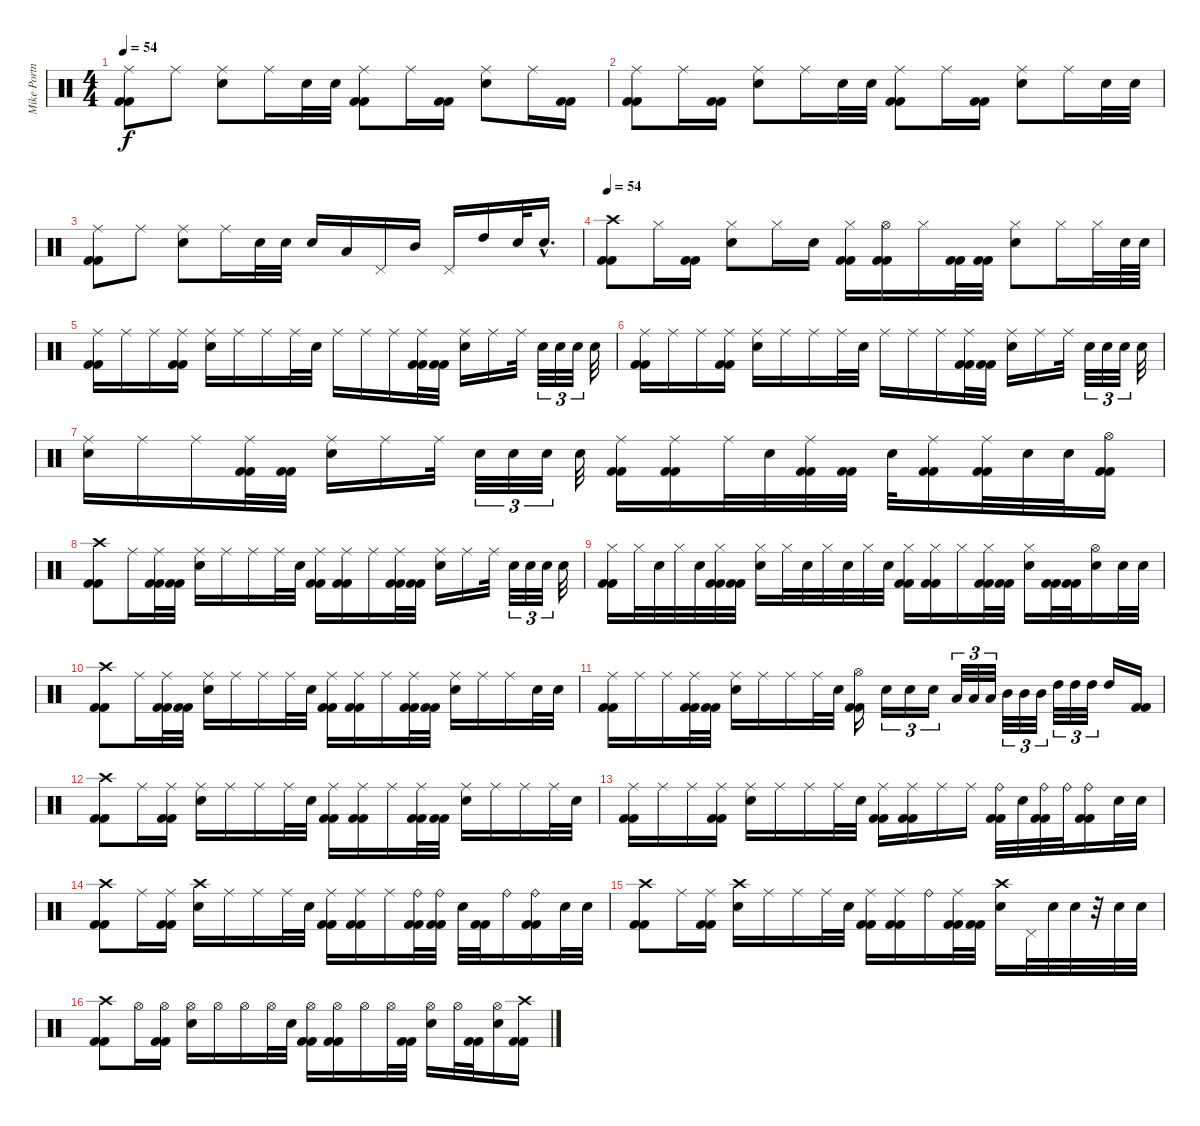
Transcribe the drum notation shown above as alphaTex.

\track ("Mike Portnoy - Drum" "Mike Portn") {instrument percussion}
\staff {score}
\articulation defaults
\ts (4 4)
\tempo 54
\clef neutral
\ks c
("Ride (middle)" "Kick (hit) 2" "Kick (hit) 2").8{dy f} "Ride (middle)".8 ("Ride (middle)" "Snare (hit) 2").8 "Ride (middle)".16 "Snare (hit) 2".32 "Snare (hit) 2".32 ("Ride (middle)" "Kick (hit) 2" "Kick (hit) 2").8 "Ride (middle)".16 ("Kick (hit) 2" "Kick (hit) 2").16 ("Ride (middle)" "Snare (hit) 2").8 "Ride (middle)".16 ("Kick (hit) 2" "Kick (hit) 2").16 |
("Ride (middle)" "Kick (hit) 2" "Kick (hit) 2").8 "Ride (middle)".16 ("Kick (hit) 2" "Kick (hit) 2").16 ("Ride (middle)" "Snare (hit) 2").8 "Ride (middle)".16 "Snare (hit) 2".32 "Snare (hit) 2".32 ("Ride (middle)" "Kick (hit) 2" "Kick (hit) 2").8 "Ride (middle)".16 ("Kick (hit) 2" "Kick (hit) 2").16 ("Ride (middle)" "Snare (hit) 2").8 "Ride (middle)".16 "Snare (hit) 2".32 "Snare (hit) 2".32 |
("Ride (middle)" "Kick (hit) 2" "Kick (hit) 2").8 "Ride (middle)".8 ("Ride (middle)" "Snare (hit) 2").8 "Ride (middle)".16 "Snare (hit) 2".32 "Snare (hit) 2".32 "Snare (hit) 2".16 "Low Tom (hit)".16 "Pedal Hi-Hat (hit)".16 "Mid Tom (hit)".16 "Pedal Hi-Hat (hit)".16 "High Tom (hit)".16 "Snare (hit) 2".32 "Snare (hit) 2"{hac}.16{d} |
\tempo 54
("Crash high (hit)" "Kick (hit) 2" "Kick (hit) 2").8 "Hi-Hat (closed)".16 ("Kick (hit) 2" "Kick (hit) 2").16 ("Hi-Hat (closed)" "Snare (hit) 2").8 "Hi-Hat (closed)".16 "Snare (hit) 2".16 ("Hi-Hat (closed)" "Kick (hit) 2" "Kick (hit) 2").16 ("Hi-Hat (open)" "Kick (hit) 2" "Kick (hit) 2").16 "Hi-Hat (closed)".16 ("Kick (hit) 2" "Kick (hit) 2").32 ("Kick (hit) 2" "Kick (hit) 2").32 ("Hi-Hat (closed)" "Snare (hit) 2").8 "Hi-Hat (closed)".16 "Hi-Hat (closed)".32 "Snare (hit) 2".64 "Snare (hit) 2".64 |
("Ride (middle)" "Kick (hit) 2" "Kick (hit) 2").16 "Ride (middle)".16 "Ride (middle)".16 ("Ride (middle)" "Kick (hit) 2" "Kick (hit) 2").16 ("Ride (middle)" "Snare (hit) 2").16 "Ride (middle)".16 "Ride (middle)".16 "Ride (middle)".32 "Snare (hit) 2".32 "Ride (middle)".16 "Ride (middle)".16 "Ride (middle)".16 ("Ride (middle)" "Kick (hit) 2" "Kick (hit) 2").32 ("Kick (hit) 2" "Kick (hit) 2").32 ("Ride (middle)" "Snare (hit) 2").16 "Ride (middle)".16 "Ride (middle)".32 "Snare (hit) 2".32{tu (3 2)} "Snare (hit) 2".32{tu (3 2)} "Snare (hit) 2".32{tu (3 2)} "Snare (hit) 2".32 |
("Ride (middle)" "Kick (hit) 2" "Kick (hit) 2").16 "Ride (middle)".16 "Ride (middle)".16 ("Ride (middle)" "Kick (hit) 2" "Kick (hit) 2").16 ("Ride (middle)" "Snare (hit) 2").16 "Ride (middle)".16 "Ride (middle)".16 "Ride (middle)".32 "Snare (hit) 2".32 "Ride (middle)".16 "Ride (middle)".16 "Ride (middle)".16 ("Ride (middle)" "Kick (hit) 2" "Kick (hit) 2").32 ("Kick (hit) 2" "Kick (hit) 2").32 ("Ride (middle)" "Snare (hit) 2").16 "Ride (middle)".16 "Ride (middle)".32 "Snare (hit) 2".32{tu (3 2)} "Snare (hit) 2".32{tu (3 2)} "Snare (hit) 2".32{tu (3 2)} "Snare (hit) 2".32 |
("Ride (middle)" "Snare (hit) 2").16 "Ride (middle)".16 "Ride (middle)".16 ("Ride (middle)" "Kick (hit) 2" "Kick (hit) 2").32 ("Kick (hit) 2" "Kick (hit) 2").32 ("Ride (middle)" "Snare (hit) 2").16 "Ride (middle)".16 "Ride (middle)".32 "Snare (hit) 2".32{tu (3 2)} "Snare (hit) 2".32{tu (3 2)} "Snare (hit) 2".32{tu (3 2)} "Snare (hit) 2".32 ("Ride (middle)" "Kick (hit) 2" "Kick (hit) 2").16 ("Ride (middle)" "Kick (hit) 2" "Kick (hit) 2").16 "Ride (middle)".32 "Snare (hit) 2".32 ("Ride (middle)" "Kick (hit) 2" "Kick (hit) 2").32 ("Kick (hit) 2" "Kick (hit) 2").32 "Snare (hit) 2".32 ("Ride (middle)" "Kick (hit) 2" "Kick (hit) 2").16 ("Ride (middle)" "Kick (hit) 2" "Kick (hit) 2").32 "Snare (hit) 2".32 "Snare (hit) 2".32 ("Hi-Hat (open)" "Kick (hit) 2" "Kick (hit) 2").16 |
("Crash high (hit)" "Kick (hit) 2" "Kick (hit) 2").8 "Ride (middle)".16 ("Ride (middle)" "Kick (hit) 2" "Kick (hit) 2").32 ("Kick (hit) 2" "Kick (hit) 2").32 ("Ride (middle)" "Snare (hit) 2").16 "Ride (middle)".16 "Ride (middle)".16 "Ride (middle)".32 "Snare (hit) 2".32 ("Ride (middle)" "Kick (hit) 2" "Kick (hit) 2").16 ("Ride (middle)" "Kick (hit) 2" "Kick (hit) 2").16 "Ride (middle)".16 ("Ride (middle)" "Kick (hit) 2" "Kick (hit) 2").32 ("Kick (hit) 2" "Kick (hit) 2").32 ("Ride (middle)" "Snare (hit) 2").16 "Ride (middle)".16 "Ride (middle)".32 "Snare (hit) 2".32{tu (3 2)} "Snare (hit) 2".32{tu (3 2)} "Snare (hit) 2".32{tu (3 2)} "Snare (hit) 2".32 |
("Hi-Hat (closed)" "Kick (hit) 2" "Kick (hit) 2").16 "Hi-Hat (closed)".32 "Snare (hit) 2".32 "Hi-Hat (closed)".32 "Snare (hit) 2".32 ("Hi-Hat (closed)" "Kick (hit) 2" "Kick (hit) 2").32 ("Kick (hit) 2" "Kick (hit) 2").32 ("Hi-Hat (closed)" "Snare (hit) 2").16 "Hi-Hat (closed)".32 "Snare (hit) 2".32 "Hi-Hat (closed)".32 "Snare (hit) 2".32 "Hi-Hat (closed)".32 "Snare (hit) 2".32 ("Hi-Hat (closed)" "Kick (hit) 2" "Kick (hit) 2").16 ("Hi-Hat (closed)" "Kick (hit) 2" "Kick (hit) 2").16 "Hi-Hat (closed)".16 ("Hi-Hat (closed)" "Kick (hit) 2" "Kick (hit) 2").32 ("Kick (hit) 2" "Kick (hit) 2").32 ("Hi-Hat (closed)" "Snare (hit) 2").16 ("Kick (hit) 2" "Kick (hit) 2").32 ("Kick (hit) 2" "Kick (hit) 2").32 ("Hi-Hat (open)" "Snare (hit) 2").16 "Snare (hit) 2".32 "Snare (hit) 2".32 |
("Crash high (hit)" "Kick (hit) 2" "Kick (hit) 2").8 "Ride (middle)".16 ("Ride (middle)" "Kick (hit) 2" "Kick (hit) 2").32 ("Kick (hit) 2" "Kick (hit) 2").32 ("Ride (middle)" "Snare (hit) 2").16 "Ride (middle)".16 "Ride (middle)".16 "Ride (middle)".32 "Snare (hit) 2".32 ("Ride (middle)" "Kick (hit) 2" "Kick (hit) 2").16 ("Ride (middle)" "Kick (hit) 2" "Kick (hit) 2").16 "Ride (middle)".16 ("Ride (middle)" "Kick (hit) 2" "Kick (hit) 2").32 ("Kick (hit) 2" "Kick (hit) 2").32 ("Ride (middle)" "Snare (hit) 2").16 "Ride (middle)".16 "Ride (middle)".16 "Snare (hit) 2".32 "Snare (hit) 2".32 |
("Ride (middle)" "Kick (hit) 2" "Kick (hit) 2").16 "Ride (middle)".16 "Ride (middle)".16 ("Ride (middle)" "Kick (hit) 2" "Kick (hit) 2").32 ("Kick (hit) 2" "Kick (hit) 2").32 ("Ride (middle)" "Snare (hit) 2").16 "Ride (middle)".16 "Ride (middle)".16 "Ride (middle)".32 "Snare (hit) 2".32 ("Hi-Hat (open)" "Kick (hit) 2" "Kick (hit) 2").16 "Snare (hit) 2".16{tu (3 2)} "Snare (hit) 2".16{tu (3 2)} "Snare (hit) 2".16{tu (3 2)} "Low Tom (hit)".32{tu (3 2)} "Low Tom (hit)".32{tu (3 2)} "Low Tom (hit)".32{tu (3 2)} "Mid Tom (hit)".32{tu (3 2)} "Mid Tom (hit)".32{tu (3 2)} "Mid Tom (hit)".32{tu (3 2)} "High Tom (hit)".32{tu (3 2)} "High Tom (hit)".32{tu (3 2)} "High Tom (hit)".32{tu (3 2)} "High Tom (hit)".16 ("Kick (hit) 2" "Kick (hit) 2").16 |
("Crash high (hit)" "Kick (hit) 2" "Kick (hit) 2").8 "Ride (middle)".16 ("Ride (middle)" "Kick (hit) 2" "Kick (hit) 2").16 ("Ride (middle)" "Snare (hit) 2").16 "Ride (middle)".16 "Ride (middle)".16 "Ride (middle)".32 "Snare (hit) 2".32 ("Ride (middle)" "Kick (hit) 2" "Kick (hit) 2").16 ("Ride (middle)" "Kick (hit) 2" "Kick (hit) 2").16 "Ride (middle)".16 ("Ride (middle)" "Kick (hit) 2" "Kick (hit) 2").32 ("Kick (hit) 2" "Kick (hit) 2").32 ("Ride (middle)" "Snare (hit) 2").16 "Ride (middle)".16 "Ride (middle)".16 "Ride (middle)".32 "Snare (hit) 2".32 |
("Ride (middle)" "Kick (hit) 2" "Kick (hit) 2").16 "Ride (middle)".16 "Ride (middle)".16 ("Ride (middle)" "Kick (hit) 2" "Kick (hit) 2").16 ("Ride (middle)" "Snare (hit) 2").16 "Ride (middle)".16 "Ride (middle)".16 "Ride (middle)".32 "Snare (hit) 2".32 ("Ride (middle)" "Kick (hit) 2" "Kick (hit) 2").16 ("Ride (middle)" "Kick (hit) 2" "Kick (hit) 2").16 "Ride (middle)".16 "Ride (middle)".16 ("Ride (bell)" "Kick (hit) 2" "Kick (hit) 2").32 "Snare (hit) 2".32 ("Ride (bell)" "Kick (hit) 2" "Kick (hit) 2").32 "Ride (bell)".32 ("Ride (bell)" "Kick (hit) 2" "Kick (hit) 2").16 "Snare (hit) 2".32 "Snare (hit) 2".32 |
("Crash high (hit)" "Kick (hit) 2" "Kick (hit) 2").8 "Ride (middle)".16 ("Ride (middle)" "Kick (hit) 2" "Kick (hit) 2").16 ("Crash high (hit)" "Snare (hit) 2").16 "Ride (middle)".16 "Ride (middle)".16 "Ride (middle)".32 "Snare (hit) 2".32 ("Ride (middle)" "Kick (hit) 2" "Kick (hit) 2").16 ("Ride (middle)" "Kick (hit) 2" "Kick (hit) 2").16 "Ride (middle)".16 ("Ride (bell)" "Kick (hit) 2" "Kick (hit) 2").32 ("Ride (bell)" "Kick (hit) 2" "Kick (hit) 2").32 "Snare (hit) 2".32 ("Kick (hit) 2" "Kick (hit) 2").32 "Ride (bell)".16 ("Ride (bell)" "Kick (hit) 2" "Kick (hit) 2").16 "Snare (hit) 2".32 "Snare (hit) 2".32 |
("Crash high (hit)" "Kick (hit) 2" "Kick (hit) 2").8 "Ride (middle)".16 ("Ride (middle)" "Kick (hit) 2" "Kick (hit) 2").16 ("Crash high (hit)" "Snare (hit) 2").16 "Ride (middle)".16 "Ride (middle)".16 "Ride (middle)".32 "Snare (hit) 2".32 ("Ride (middle)" "Kick (hit) 2" "Kick (hit) 2").16 ("Ride (middle)" "Kick (hit) 2" "Kick (hit) 2").16 "Ride (bell)".16 ("Ride (middle)" "Kick (hit) 2" "Kick (hit) 2").32 ("Kick (hit) 2" "Kick (hit) 2").32 ("Crash high (hit)" "Snare (hit) 2").16 "Pedal Hi-Hat (hit)".32 "Snare (hit) 2".32 "Snare (hit) 2".32 r.32 "Snare (hit) 2".32 "Snare (hit) 2".32 |
("Crash high (hit)" "Kick (hit) 2" "Kick (hit) 2").8 "Hi-Hat (open)".16 ("Hi-Hat (open)" "Kick (hit) 2" "Kick (hit) 2").16 ("Hi-Hat (open)" "Snare (hit) 2").16 "Hi-Hat (open)".16 "Hi-Hat (open)".16 "Hi-Hat (open)".32 "Snare (hit) 2".32 ("Hi-Hat (open)" "Kick (hit) 2" "Kick (hit) 2").16 ("Hi-Hat (open)" "Kick (hit) 2" "Kick (hit) 2").16 "Hi-Hat (open)".16 "Hi-Hat (open)".32 ("Kick (hit) 2" "Kick (hit) 2").32 ("Hi-Hat (open)" "Snare (hit) 2").16 "Hi-Hat (open)".32 ("Kick (hit) 2" "Kick (hit) 2").32 ("Hi-Hat (open)" "Snare (hit) 2").16 ("Crash high (hit)" "Kick (hit) 2" "Kick (hit) 2").16
